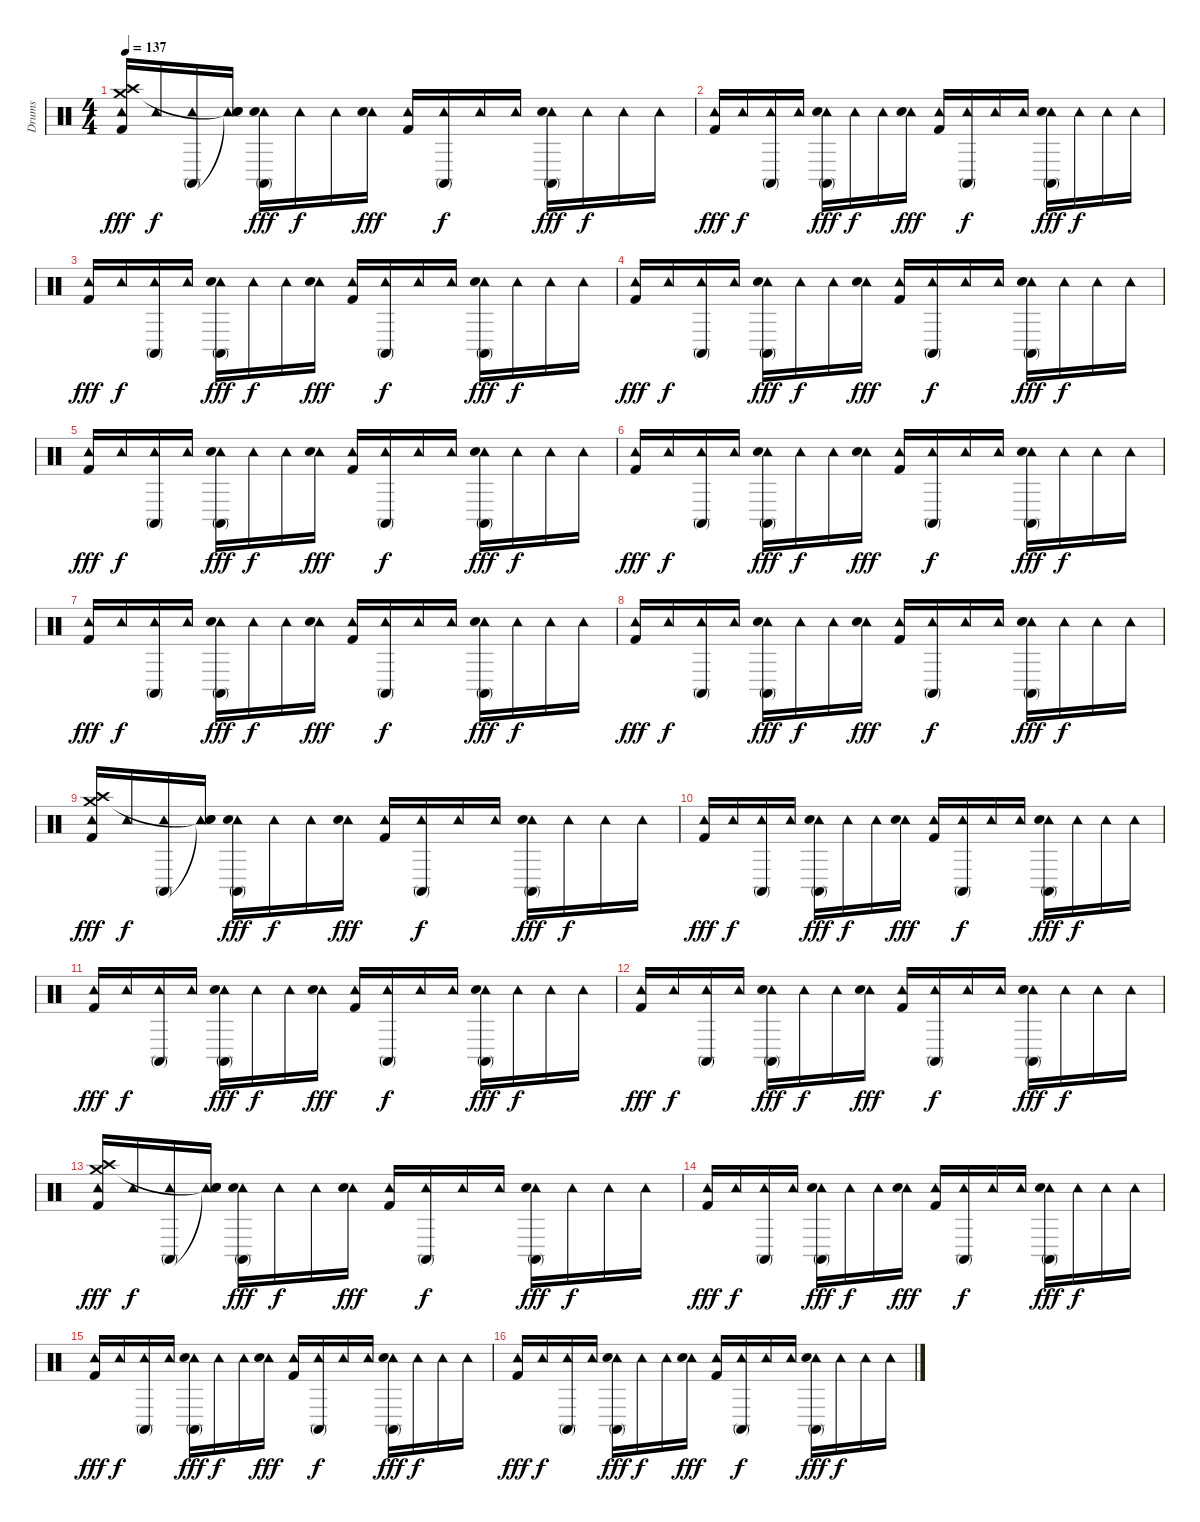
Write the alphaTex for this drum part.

\track ("Drums" "Drums") {instrument percussion}
\staff {score}
\articulation defaults
\ts (4 4)
\tempo 137
\clef neutral
\ks c
("Tambourine (hit)" "Crash high (hit)" "Crash medium (hit)" "Kick (hit) 2").16{dy fff} "Tambourine (hit)".16{dy f} ("Tambourine (hit)" "Conga high (mute)").16 ("Tambourine (hit)" "Snare (hit)"{t} "Snare (hit)"{t}).16 ("Tambourine (hit)" "Conga high (mute)" "Electric Snare (hit)").16{dy fff} "Tambourine (hit)".16{dy f} "Tambourine (hit)".16 ("Tambourine (hit)" "Electric Snare (hit)").16{dy fff} ("Tambourine (hit)" "Kick (hit) 2").16 ("Tambourine (hit)" "Conga high (mute)").16{dy f} "Tambourine (hit)".16 "Tambourine (hit)".16 ("Tambourine (hit)" "Conga high (mute)" "Electric Snare (hit)").16{dy fff} "Tambourine (hit)".16{dy f} "Tambourine (hit)".16 "Tambourine (hit)".16 |
("Tambourine (hit)" "Kick (hit) 2").16{dy fff} "Tambourine (hit)".16{dy f} ("Tambourine (hit)" "Conga high (mute)").16 "Tambourine (hit)".16 ("Tambourine (hit)" "Conga high (mute)" "Electric Snare (hit)").16{dy fff} "Tambourine (hit)".16{dy f} "Tambourine (hit)".16 ("Tambourine (hit)" "Electric Snare (hit)").16{dy fff} ("Tambourine (hit)" "Kick (hit) 2").16 ("Tambourine (hit)" "Conga high (mute)").16{dy f} "Tambourine (hit)".16 "Tambourine (hit)".16 ("Tambourine (hit)" "Conga high (mute)" "Electric Snare (hit)").16{dy fff} "Tambourine (hit)".16{dy f} "Tambourine (hit)".16 "Tambourine (hit)".16 |
("Tambourine (hit)" "Kick (hit) 2").16{dy fff} "Tambourine (hit)".16{dy f} ("Tambourine (hit)" "Conga high (mute)").16 "Tambourine (hit)".16 ("Tambourine (hit)" "Conga high (mute)" "Electric Snare (hit)").16{dy fff} "Tambourine (hit)".16{dy f} "Tambourine (hit)".16 ("Tambourine (hit)" "Electric Snare (hit)").16{dy fff} ("Tambourine (hit)" "Kick (hit) 2").16 ("Tambourine (hit)" "Conga high (mute)").16{dy f} "Tambourine (hit)".16 "Tambourine (hit)".16 ("Tambourine (hit)" "Conga high (mute)" "Electric Snare (hit)").16{dy fff} "Tambourine (hit)".16{dy f} "Tambourine (hit)".16 "Tambourine (hit)".16 |
("Tambourine (hit)" "Kick (hit) 2").16{dy fff} "Tambourine (hit)".16{dy f} ("Tambourine (hit)" "Conga high (mute)").16 "Tambourine (hit)".16 ("Tambourine (hit)" "Conga high (mute)" "Electric Snare (hit)").16{dy fff} "Tambourine (hit)".16{dy f} "Tambourine (hit)".16 ("Tambourine (hit)" "Electric Snare (hit)").16{dy fff} ("Tambourine (hit)" "Kick (hit) 2").16 ("Tambourine (hit)" "Conga high (mute)").16{dy f} "Tambourine (hit)".16 "Tambourine (hit)".16 ("Tambourine (hit)" "Conga high (mute)" "Electric Snare (hit)").16{dy fff} "Tambourine (hit)".16{dy f} "Tambourine (hit)".16 "Tambourine (hit)".16 |
("Tambourine (hit)" "Kick (hit) 2").16{dy fff} "Tambourine (hit)".16{dy f} ("Tambourine (hit)" "Conga high (mute)").16 "Tambourine (hit)".16 ("Tambourine (hit)" "Conga high (mute)" "Electric Snare (hit)").16{dy fff} "Tambourine (hit)".16{dy f} "Tambourine (hit)".16 ("Tambourine (hit)" "Electric Snare (hit)").16{dy fff} ("Tambourine (hit)" "Kick (hit) 2").16 ("Tambourine (hit)" "Conga high (mute)").16{dy f} "Tambourine (hit)".16 "Tambourine (hit)".16 ("Tambourine (hit)" "Conga high (mute)" "Electric Snare (hit)").16{dy fff} "Tambourine (hit)".16{dy f} "Tambourine (hit)".16 "Tambourine (hit)".16 |
("Tambourine (hit)" "Kick (hit) 2").16{dy fff} "Tambourine (hit)".16{dy f} ("Tambourine (hit)" "Conga high (mute)").16 "Tambourine (hit)".16 ("Tambourine (hit)" "Conga high (mute)" "Electric Snare (hit)").16{dy fff} "Tambourine (hit)".16{dy f} "Tambourine (hit)".16 ("Tambourine (hit)" "Electric Snare (hit)").16{dy fff} ("Tambourine (hit)" "Kick (hit) 2").16 ("Tambourine (hit)" "Conga high (mute)").16{dy f} "Tambourine (hit)".16 "Tambourine (hit)".16 ("Tambourine (hit)" "Conga high (mute)" "Electric Snare (hit)").16{dy fff} "Tambourine (hit)".16{dy f} "Tambourine (hit)".16 "Tambourine (hit)".16 |
("Tambourine (hit)" "Kick (hit) 2").16{dy fff} "Tambourine (hit)".16{dy f} ("Tambourine (hit)" "Conga high (mute)").16 "Tambourine (hit)".16 ("Tambourine (hit)" "Conga high (mute)" "Electric Snare (hit)").16{dy fff} "Tambourine (hit)".16{dy f} "Tambourine (hit)".16 ("Tambourine (hit)" "Electric Snare (hit)").16{dy fff} ("Tambourine (hit)" "Kick (hit) 2").16 ("Tambourine (hit)" "Conga high (mute)").16{dy f} "Tambourine (hit)".16 "Tambourine (hit)".16 ("Tambourine (hit)" "Conga high (mute)" "Electric Snare (hit)").16{dy fff} "Tambourine (hit)".16{dy f} "Tambourine (hit)".16 "Tambourine (hit)".16 |
("Tambourine (hit)" "Kick (hit) 2").16{dy fff} "Tambourine (hit)".16{dy f} ("Tambourine (hit)" "Conga high (mute)").16 "Tambourine (hit)".16 ("Tambourine (hit)" "Conga high (mute)" "Electric Snare (hit)").16{dy fff} "Tambourine (hit)".16{dy f} "Tambourine (hit)".16 ("Tambourine (hit)" "Electric Snare (hit)").16{dy fff} ("Tambourine (hit)" "Kick (hit) 2").16 ("Tambourine (hit)" "Conga high (mute)").16{dy f} "Tambourine (hit)".16 "Tambourine (hit)".16 ("Tambourine (hit)" "Conga high (mute)" "Electric Snare (hit)").16{dy fff} "Tambourine (hit)".16{dy f} "Tambourine (hit)".16 "Tambourine (hit)".16 |
("Tambourine (hit)" "Crash high (hit)" "Crash medium (hit)" "Kick (hit) 2").16{dy fff} "Tambourine (hit)".16{dy f} ("Tambourine (hit)" "Conga high (mute)").16 ("Tambourine (hit)" "Snare (hit)"{t} "Snare (hit)"{t}).16 ("Tambourine (hit)" "Conga high (mute)" "Electric Snare (hit)").16{dy fff} "Tambourine (hit)".16{dy f} "Tambourine (hit)".16 ("Tambourine (hit)" "Electric Snare (hit)").16{dy fff} ("Tambourine (hit)" "Kick (hit) 2").16 ("Tambourine (hit)" "Conga high (mute)").16{dy f} "Tambourine (hit)".16 "Tambourine (hit)".16 ("Tambourine (hit)" "Conga high (mute)" "Electric Snare (hit)").16{dy fff} "Tambourine (hit)".16{dy f} "Tambourine (hit)".16 "Tambourine (hit)".16 |
("Tambourine (hit)" "Kick (hit) 2").16{dy fff} "Tambourine (hit)".16{dy f} ("Tambourine (hit)" "Conga high (mute)").16 "Tambourine (hit)".16 ("Tambourine (hit)" "Conga high (mute)" "Electric Snare (hit)").16{dy fff} "Tambourine (hit)".16{dy f} "Tambourine (hit)".16 ("Tambourine (hit)" "Electric Snare (hit)").16{dy fff} ("Tambourine (hit)" "Kick (hit) 2").16 ("Tambourine (hit)" "Conga high (mute)").16{dy f} "Tambourine (hit)".16 "Tambourine (hit)".16 ("Tambourine (hit)" "Conga high (mute)" "Electric Snare (hit)").16{dy fff} "Tambourine (hit)".16{dy f} "Tambourine (hit)".16 "Tambourine (hit)".16 |
("Tambourine (hit)" "Kick (hit) 2").16{dy fff} "Tambourine (hit)".16{dy f} ("Tambourine (hit)" "Conga high (mute)").16 "Tambourine (hit)".16 ("Tambourine (hit)" "Conga high (mute)" "Electric Snare (hit)").16{dy fff} "Tambourine (hit)".16{dy f} "Tambourine (hit)".16 ("Tambourine (hit)" "Electric Snare (hit)").16{dy fff} ("Tambourine (hit)" "Kick (hit) 2").16 ("Tambourine (hit)" "Conga high (mute)").16{dy f} "Tambourine (hit)".16 "Tambourine (hit)".16 ("Tambourine (hit)" "Conga high (mute)" "Electric Snare (hit)").16{dy fff} "Tambourine (hit)".16{dy f} "Tambourine (hit)".16 "Tambourine (hit)".16 |
("Tambourine (hit)" "Kick (hit) 2").16{dy fff} "Tambourine (hit)".16{dy f} ("Tambourine (hit)" "Conga high (mute)").16 "Tambourine (hit)".16 ("Tambourine (hit)" "Conga high (mute)" "Electric Snare (hit)").16{dy fff} "Tambourine (hit)".16{dy f} "Tambourine (hit)".16 ("Tambourine (hit)" "Electric Snare (hit)").16{dy fff} ("Tambourine (hit)" "Kick (hit) 2").16 ("Tambourine (hit)" "Conga high (mute)").16{dy f} "Tambourine (hit)".16 "Tambourine (hit)".16 ("Tambourine (hit)" "Conga high (mute)" "Electric Snare (hit)").16{dy fff} "Tambourine (hit)".16{dy f} "Tambourine (hit)".16 "Tambourine (hit)".16 |
("Tambourine (hit)" "Crash high (hit)" "Crash medium (hit)" "Kick (hit) 2").16{dy fff} "Tambourine (hit)".16{dy f} ("Tambourine (hit)" "Conga high (mute)").16 ("Tambourine (hit)" "Snare (hit)"{t} "Snare (hit)"{t}).16 ("Tambourine (hit)" "Conga high (mute)" "Electric Snare (hit)").16{dy fff} "Tambourine (hit)".16{dy f} "Tambourine (hit)".16 ("Tambourine (hit)" "Electric Snare (hit)").16{dy fff} ("Tambourine (hit)" "Kick (hit) 2").16 ("Tambourine (hit)" "Conga high (mute)").16{dy f} "Tambourine (hit)".16 "Tambourine (hit)".16 ("Tambourine (hit)" "Conga high (mute)" "Electric Snare (hit)").16{dy fff} "Tambourine (hit)".16{dy f} "Tambourine (hit)".16 "Tambourine (hit)".16 |
("Tambourine (hit)" "Kick (hit) 2").16{dy fff} "Tambourine (hit)".16{dy f} ("Tambourine (hit)" "Conga high (mute)").16 "Tambourine (hit)".16 ("Tambourine (hit)" "Conga high (mute)" "Electric Snare (hit)").16{dy fff} "Tambourine (hit)".16{dy f} "Tambourine (hit)".16 ("Tambourine (hit)" "Electric Snare (hit)").16{dy fff} ("Tambourine (hit)" "Kick (hit) 2").16 ("Tambourine (hit)" "Conga high (mute)").16{dy f} "Tambourine (hit)".16 "Tambourine (hit)".16 ("Tambourine (hit)" "Conga high (mute)" "Electric Snare (hit)").16{dy fff} "Tambourine (hit)".16{dy f} "Tambourine (hit)".16 "Tambourine (hit)".16 |
("Tambourine (hit)" "Kick (hit) 2").16{dy fff} "Tambourine (hit)".16{dy f} ("Tambourine (hit)" "Conga high (mute)").16 "Tambourine (hit)".16 ("Tambourine (hit)" "Conga high (mute)" "Electric Snare (hit)").16{dy fff} "Tambourine (hit)".16{dy f} "Tambourine (hit)".16 ("Tambourine (hit)" "Electric Snare (hit)").16{dy fff} ("Tambourine (hit)" "Kick (hit) 2").16 ("Tambourine (hit)" "Conga high (mute)").16{dy f} "Tambourine (hit)".16 "Tambourine (hit)".16 ("Tambourine (hit)" "Conga high (mute)" "Electric Snare (hit)").16{dy fff} "Tambourine (hit)".16{dy f} "Tambourine (hit)".16 "Tambourine (hit)".16 |
("Tambourine (hit)" "Kick (hit) 2").16{dy fff} "Tambourine (hit)".16{dy f} ("Tambourine (hit)" "Conga high (mute)").16 "Tambourine (hit)".16 ("Tambourine (hit)" "Conga high (mute)" "Electric Snare (hit)").16{dy fff} "Tambourine (hit)".16{dy f} "Tambourine (hit)".16 ("Tambourine (hit)" "Electric Snare (hit)").16{dy fff} ("Tambourine (hit)" "Kick (hit) 2").16 ("Tambourine (hit)" "Conga high (mute)").16{dy f} "Tambourine (hit)".16 "Tambourine (hit)".16 ("Tambourine (hit)" "Conga high (mute)" "Electric Snare (hit)").16{dy fff} "Tambourine (hit)".16{dy f} "Tambourine (hit)".16 "Tambourine (hit)".16
